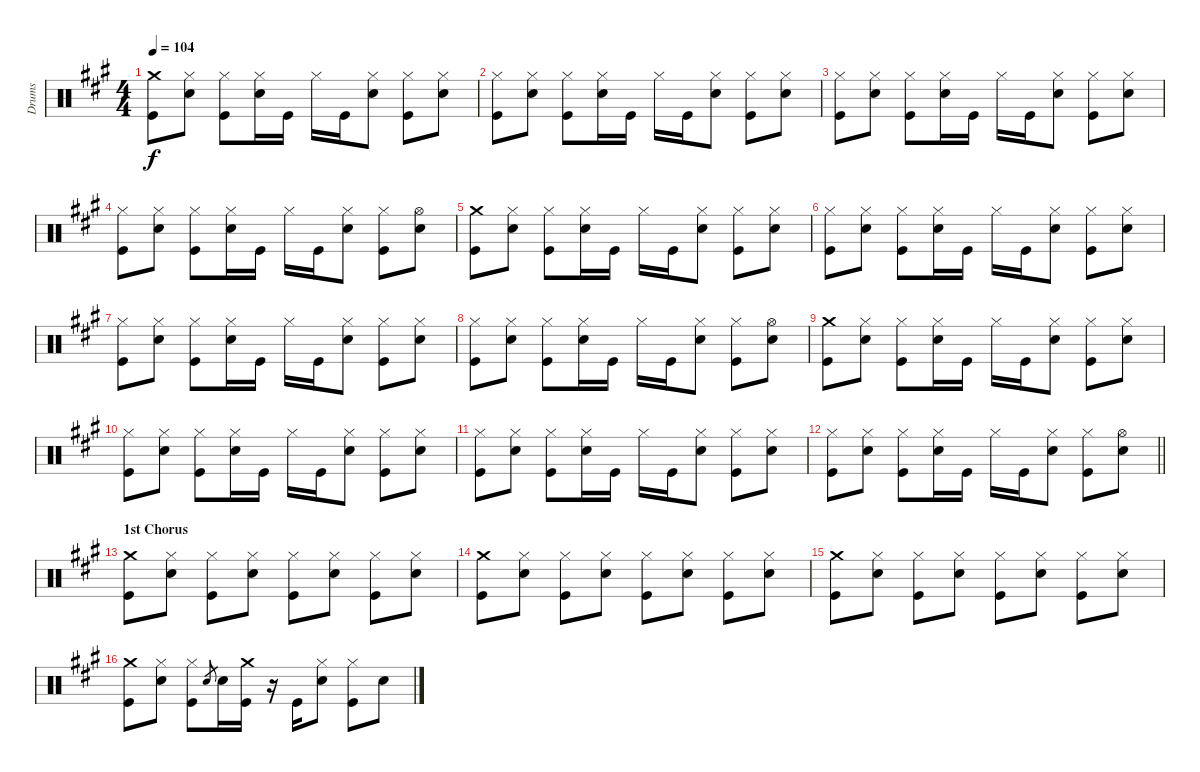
\track ("Drums" "Drums") {instrument percussion}
\staff {score}
\articulation defaults
\ts (4 4)
\tempo 104
\clef neutral
\ks a
("Crash medium (hit)" "Kick (hit)").8{dy f} ("Hi-Hat (closed)" "Electric Snare (hit)").8 ("Hi-Hat (closed)" "Kick (hit)").8 ("Hi-Hat (closed)" "Electric Snare (hit)").16 "Kick (hit)".16 "Hi-Hat (closed)".16 "Kick (hit)".16 ("Hi-Hat (closed)" "Electric Snare (hit)").8 ("Hi-Hat (closed)" "Kick (hit)").8 ("Hi-Hat (closed)" "Electric Snare (hit)").8 |
("Hi-Hat (closed)" "Kick (hit)").8 ("Hi-Hat (closed)" "Electric Snare (hit)").8 ("Hi-Hat (closed)" "Kick (hit)").8 ("Hi-Hat (closed)" "Electric Snare (hit)").16 "Kick (hit)".16 "Hi-Hat (closed)".16 "Kick (hit)".16 ("Hi-Hat (closed)" "Electric Snare (hit)").8 ("Hi-Hat (closed)" "Kick (hit)").8 ("Hi-Hat (closed)" "Electric Snare (hit)").8 |
("Hi-Hat (closed)" "Kick (hit)").8 ("Hi-Hat (closed)" "Electric Snare (hit)").8 ("Hi-Hat (closed)" "Kick (hit)").8 ("Hi-Hat (closed)" "Electric Snare (hit)").16 "Kick (hit)".16 "Hi-Hat (closed)".16 "Kick (hit)".16 ("Hi-Hat (closed)" "Electric Snare (hit)").8 ("Hi-Hat (closed)" "Kick (hit)").8 ("Hi-Hat (closed)" "Electric Snare (hit)").8 |
("Hi-Hat (closed)" "Kick (hit)").8 ("Hi-Hat (closed)" "Electric Snare (hit)").8 ("Hi-Hat (closed)" "Kick (hit)").8 ("Hi-Hat (closed)" "Electric Snare (hit)").16 "Kick (hit)".16 "Hi-Hat (closed)".16 "Kick (hit)".16 ("Hi-Hat (closed)" "Electric Snare (hit)").8 ("Hi-Hat (closed)" "Kick (hit)").8 ("Hi-Hat (open)" "Electric Snare (hit)").8 |
("Crash medium (hit)" "Kick (hit)").8 ("Hi-Hat (closed)" "Electric Snare (hit)").8 ("Hi-Hat (closed)" "Kick (hit)").8 ("Hi-Hat (closed)" "Electric Snare (hit)").16 "Kick (hit)".16 "Hi-Hat (closed)".16 "Kick (hit)".16 ("Hi-Hat (closed)" "Electric Snare (hit)").8 ("Hi-Hat (closed)" "Kick (hit)").8 ("Hi-Hat (closed)" "Electric Snare (hit)").8 |
("Hi-Hat (closed)" "Kick (hit)").8 ("Hi-Hat (closed)" "Electric Snare (hit)").8 ("Hi-Hat (closed)" "Kick (hit)").8 ("Hi-Hat (closed)" "Electric Snare (hit)").16 "Kick (hit)".16 "Hi-Hat (closed)".16 "Kick (hit)".16 ("Hi-Hat (closed)" "Electric Snare (hit)").8 ("Hi-Hat (closed)" "Kick (hit)").8 ("Hi-Hat (closed)" "Electric Snare (hit)").8 |
("Hi-Hat (closed)" "Kick (hit)").8 ("Hi-Hat (closed)" "Electric Snare (hit)").8 ("Hi-Hat (closed)" "Kick (hit)").8 ("Hi-Hat (closed)" "Electric Snare (hit)").16 "Kick (hit)".16 "Hi-Hat (closed)".16 "Kick (hit)".16 ("Hi-Hat (closed)" "Electric Snare (hit)").8 ("Hi-Hat (closed)" "Kick (hit)").8 ("Hi-Hat (closed)" "Electric Snare (hit)").8 |
("Hi-Hat (closed)" "Kick (hit)").8 ("Hi-Hat (closed)" "Electric Snare (hit)").8 ("Hi-Hat (closed)" "Kick (hit)").8 ("Hi-Hat (closed)" "Electric Snare (hit)").16 "Kick (hit)".16 "Hi-Hat (closed)".16 "Kick (hit)".16 ("Hi-Hat (closed)" "Electric Snare (hit)").8 ("Hi-Hat (closed)" "Kick (hit)").8 ("Hi-Hat (open)" "Electric Snare (hit)").8 |
("Crash medium (hit)" "Kick (hit)").8 ("Hi-Hat (closed)" "Electric Snare (hit)").8 ("Hi-Hat (closed)" "Kick (hit)").8 ("Hi-Hat (closed)" "Electric Snare (hit)").16 "Kick (hit)".16 "Hi-Hat (closed)".16 "Kick (hit)".16 ("Hi-Hat (closed)" "Electric Snare (hit)").8 ("Hi-Hat (closed)" "Kick (hit)").8 ("Hi-Hat (closed)" "Electric Snare (hit)").8 |
("Hi-Hat (closed)" "Kick (hit)").8 ("Hi-Hat (closed)" "Electric Snare (hit)").8 ("Hi-Hat (closed)" "Kick (hit)").8 ("Hi-Hat (closed)" "Electric Snare (hit)").16 "Kick (hit)".16 "Hi-Hat (closed)".16 "Kick (hit)".16 ("Hi-Hat (closed)" "Electric Snare (hit)").8 ("Hi-Hat (closed)" "Kick (hit)").8 ("Hi-Hat (closed)" "Electric Snare (hit)").8 |
("Hi-Hat (closed)" "Kick (hit)").8 ("Hi-Hat (closed)" "Electric Snare (hit)").8 ("Hi-Hat (closed)" "Kick (hit)").8 ("Hi-Hat (closed)" "Electric Snare (hit)").16 "Kick (hit)".16 "Hi-Hat (closed)".16 "Kick (hit)".16 ("Hi-Hat (closed)" "Electric Snare (hit)").8 ("Hi-Hat (closed)" "Kick (hit)").8 ("Hi-Hat (closed)" "Electric Snare (hit)").8 |
\barLineRight lightlight
("Hi-Hat (closed)" "Kick (hit)").8 ("Hi-Hat (closed)" "Electric Snare (hit)").8 ("Hi-Hat (closed)" "Kick (hit)").8 ("Hi-Hat (closed)" "Electric Snare (hit)").16 "Kick (hit)".16 "Hi-Hat (closed)".16 "Kick (hit)".16 ("Hi-Hat (closed)" "Electric Snare (hit)").8 ("Hi-Hat (closed)" "Kick (hit)").8 ("Hi-Hat (open)" "Electric Snare (hit)").8 |
\section ("" "1st Chorus")
("Crash medium (hit)" "Kick (hit)").8 ("Hi-Hat (closed)" "Electric Snare (hit)").8 ("Hi-Hat (closed)" "Kick (hit)").8 ("Hi-Hat (closed)" "Electric Snare (hit)").8 ("Hi-Hat (closed)" "Kick (hit)").8 ("Hi-Hat (closed)" "Electric Snare (hit)").8 ("Hi-Hat (closed)" "Kick (hit)").8 ("Hi-Hat (closed)" "Electric Snare (hit)").8 |
("Crash medium (hit)" "Kick (hit)").8 ("Hi-Hat (closed)" "Electric Snare (hit)").8 ("Hi-Hat (closed)" "Kick (hit)").8 ("Hi-Hat (closed)" "Electric Snare (hit)").8 ("Hi-Hat (closed)" "Kick (hit)").8 ("Hi-Hat (closed)" "Electric Snare (hit)").8 ("Hi-Hat (closed)" "Kick (hit)").8 ("Hi-Hat (closed)" "Electric Snare (hit)").8 |
("Crash medium (hit)" "Kick (hit)").8 ("Hi-Hat (closed)" "Electric Snare (hit)").8 ("Hi-Hat (closed)" "Kick (hit)").8 ("Hi-Hat (closed)" "Electric Snare (hit)").8 ("Hi-Hat (closed)" "Kick (hit)").8 ("Hi-Hat (closed)" "Electric Snare (hit)").8 ("Hi-Hat (closed)" "Kick (hit)").8 ("Hi-Hat (closed)" "Electric Snare (hit)").8 |
("Crash medium (hit)" "Kick (hit)").8 ("Hi-Hat (closed)" "Electric Snare (hit)").8 ("Hi-Hat (closed)" "Kick (hit)").8 "Electric Snare (hit)".8{gr} "Electric Snare (hit)".16 ("Crash medium (hit)" "Kick (hit)").16 r.16 "Kick (hit)".16 ("Hi-Hat (closed)" "Electric Snare (hit)").8 ("Hi-Hat (closed)" "Kick (hit)").8 "Electric Snare (hit)".8
